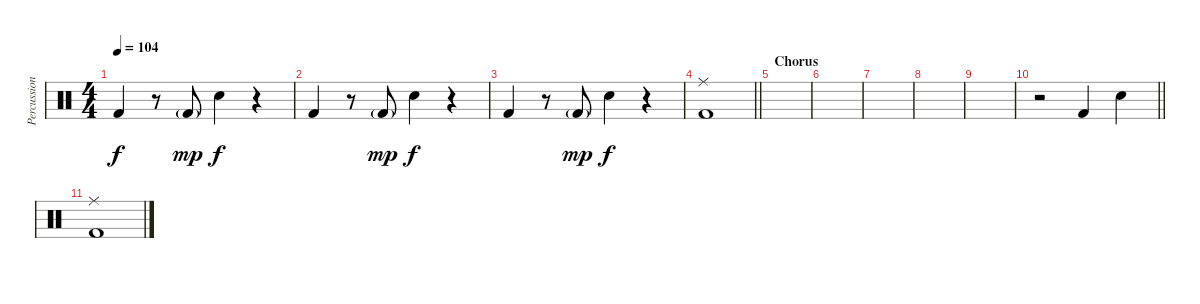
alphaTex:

\track ("Percussion" "Percussion") {instrument percussion}
\staff {score}
\articulation defaults
\ts (4 4)
\tempo 104
\clef neutral
\ks c "Kick (hit) 2".4{dy f}
r.8 "Kick (hit) 2"{g}.8{dy mp} "Snare (hit) 2".4{dy f} r.4 |
"Kick (hit) 2".4 r.8 "Kick (hit) 2"{g}.8{dy mp} "Snare (hit) 2".4{dy f} r.4 |
"Kick (hit) 2".4 r.8 "Kick (hit) 2"{g}.8{dy mp} "Snare (hit) 2".4{dy f} r.4 |
\barLineRight lightlight
("Ride (middle)" "Kick (hit) 2").1 |
\section ("" "Chorus")
|
|
|
|
|
\barLineRight lightlight
r.2 "Kick (hit) 2".4 "Snare (hit) 2".4 |
("Ride (middle)" "Kick (hit) 2").1
